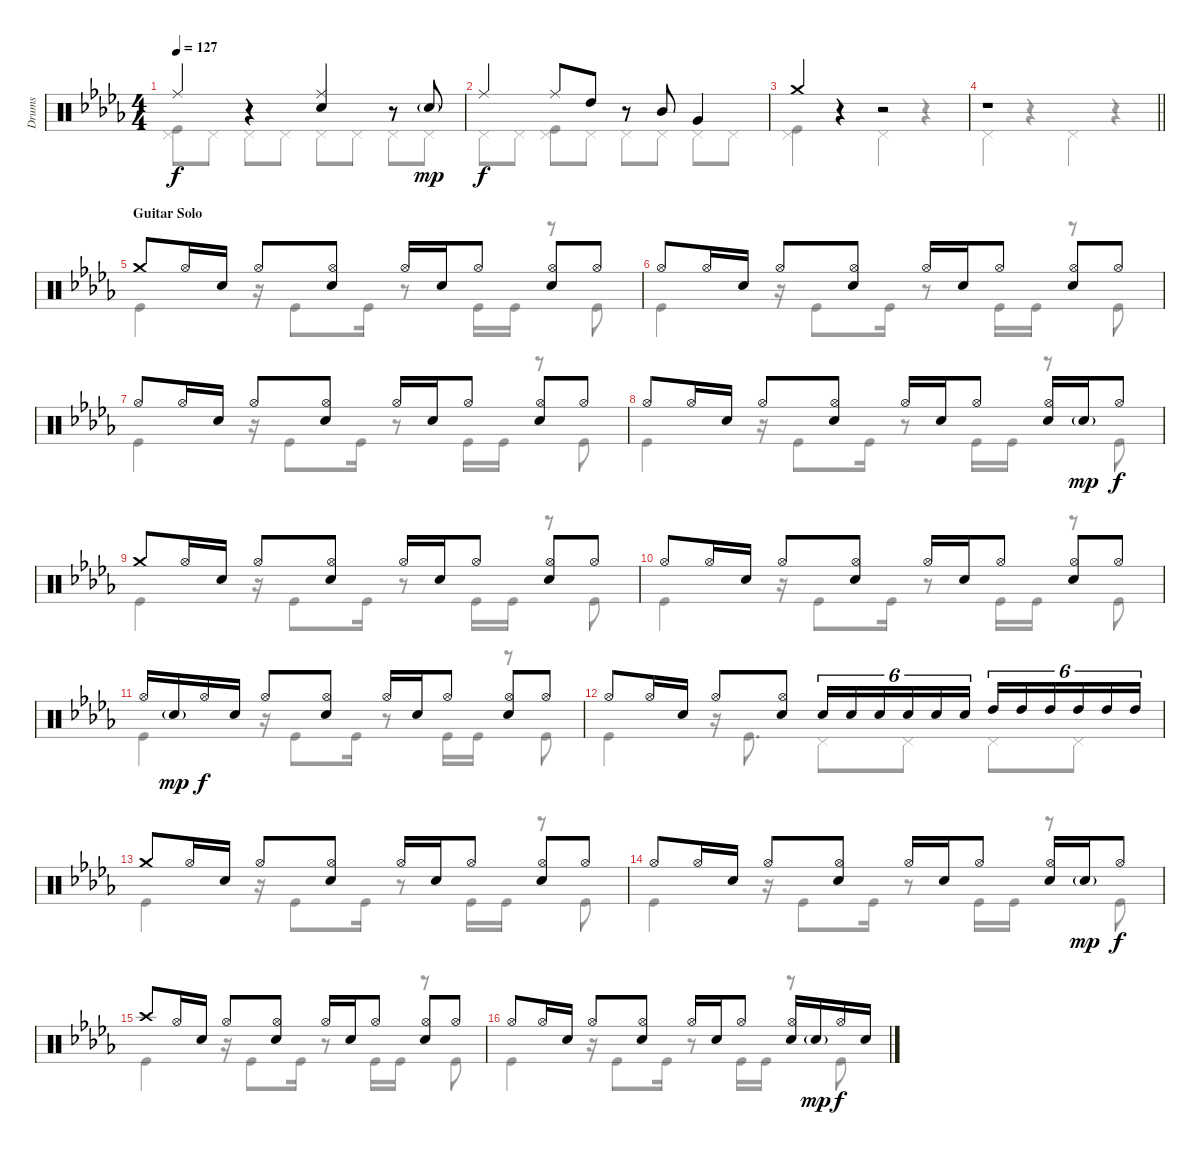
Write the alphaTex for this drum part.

\track ("Drums" "Drums") {instrument percussion}
\staff {score}
\articulation defaults
\voice
\ts (4 4)
\tempo 127
\clef neutral
\ks bbminor "Ride (middle)".4{dy f}
r.4 ("Ride (middle)" "Electric Snare (hit)").4 r.8 "Electric Snare (hit)"{g}.8{dy mp} |
"Ride (middle)".4{dy f} "Ride (middle)".8 "High Tom (hit)".8 r.8 "Mid Tom (hit)".8 "Very Low Tom (hit)".4 |
"Crash medium (hit)".4 r.4 r.2 |
\barLineRight lightlight
r.1 |
\section ("" "Guitar Solo")
"Crash medium (hit)".8 "Hi-Hat (open)".16 "Electric Snare (hit)".16 "Hi-Hat (open)".8 ("Hi-Hat (open)" "Electric Snare (hit)").8 "Hi-Hat (open)".16 "Electric Snare (hit)".16 "Hi-Hat (open)".8 ("Hi-Hat (open)" "Electric Snare (hit)").8 "Hi-Hat (open)".8 |
"Hi-Hat (open)".8 "Hi-Hat (open)".16 "Electric Snare (hit)".16 "Hi-Hat (open)".8 ("Hi-Hat (open)" "Electric Snare (hit)").8 "Hi-Hat (open)".16 "Electric Snare (hit)".16 "Hi-Hat (open)".8 ("Hi-Hat (open)" "Electric Snare (hit)").8 "Hi-Hat (open)".8 |
"Hi-Hat (open)".8 "Hi-Hat (open)".16 "Electric Snare (hit)".16 "Hi-Hat (open)".8 ("Hi-Hat (open)" "Electric Snare (hit)").8 "Hi-Hat (open)".16 "Electric Snare (hit)".16 "Hi-Hat (open)".8 ("Hi-Hat (open)" "Electric Snare (hit)").8 "Hi-Hat (open)".8 |
"Hi-Hat (open)".8 "Hi-Hat (open)".16 "Electric Snare (hit)".16 "Hi-Hat (open)".8 ("Hi-Hat (open)" "Electric Snare (hit)").8 "Hi-Hat (open)".16 "Electric Snare (hit)".16 "Hi-Hat (open)".8 ("Hi-Hat (open)" "Electric Snare (hit)").16 "Electric Snare (hit)"{g}.16{dy mp} "Hi-Hat (open)".8{dy f} |
"Crash medium (hit)".8 "Hi-Hat (open)".16 "Electric Snare (hit)".16 "Hi-Hat (open)".8 ("Hi-Hat (open)" "Electric Snare (hit)").8 "Hi-Hat (open)".16 "Electric Snare (hit)".16 "Hi-Hat (open)".8 ("Hi-Hat (open)" "Electric Snare (hit)").8 "Hi-Hat (open)".8 |
"Hi-Hat (open)".8 "Hi-Hat (open)".16 "Electric Snare (hit)".16 "Hi-Hat (open)".8 ("Hi-Hat (open)" "Electric Snare (hit)").8 "Hi-Hat (open)".16 "Electric Snare (hit)".16 "Hi-Hat (open)".8 ("Hi-Hat (open)" "Electric Snare (hit)").8 "Hi-Hat (open)".8 |
"Hi-Hat (open)".16 "Electric Snare (hit)"{g}.16{dy mp} "Hi-Hat (open)".16{dy f} "Electric Snare (hit)".16 "Hi-Hat (open)".8 ("Hi-Hat (open)" "Electric Snare (hit)").8 "Hi-Hat (open)".16 "Electric Snare (hit)".16 "Hi-Hat (open)".8 ("Hi-Hat (open)" "Electric Snare (hit)").8 "Hi-Hat (open)".8 |
"Hi-Hat (open)".8 "Hi-Hat (open)".16 "Electric Snare (hit)".16 "Hi-Hat (open)".8 ("Hi-Hat (open)" "Electric Snare (hit)").8 "Electric Snare (hit)".16{tu (6 4)} "Electric Snare (hit)".16{tu (6 4)} "Electric Snare (hit)".16{tu (6 4)} "Electric Snare (hit)".16{tu (6 4)} "Electric Snare (hit)".16{tu (6 4)} "Electric Snare (hit)".16{tu (6 4)} "High Tom (hit)".16{tu (6 4)} "High Tom (hit)".16{tu (6 4)} "High Tom (hit)".16{tu (6 4)} "High Tom (hit)".16{tu (6 4)} "High Tom (hit)".16{tu (6 4)} "High Tom (hit)".16{tu (6 4)} |
"Crash medium (hit)".8 "Hi-Hat (open)".16 "Electric Snare (hit)".16 "Hi-Hat (open)".8 ("Hi-Hat (open)" "Electric Snare (hit)").8 "Hi-Hat (open)".16 "Electric Snare (hit)".16 "Hi-Hat (open)".8 ("Hi-Hat (open)" "Electric Snare (hit)").8 "Hi-Hat (open)".8 |
"Hi-Hat (open)".8 "Hi-Hat (open)".16 "Electric Snare (hit)".16 "Hi-Hat (open)".8 ("Hi-Hat (open)" "Electric Snare (hit)").8 "Hi-Hat (open)".16 "Electric Snare (hit)".16 "Hi-Hat (open)".8 ("Hi-Hat (open)" "Electric Snare (hit)").16 "Electric Snare (hit)"{g}.16{dy mp} "Hi-Hat (open)".8{dy f} |
"Crash high (hit)".8 "Hi-Hat (open)".16 "Electric Snare (hit)".16 "Hi-Hat (open)".8 ("Hi-Hat (open)" "Electric Snare (hit)").8 "Hi-Hat (open)".16 "Electric Snare (hit)".16 "Hi-Hat (open)".8 ("Hi-Hat (open)" "Electric Snare (hit)").8 "Hi-Hat (open)".8 |
"Hi-Hat (open)".8 "Hi-Hat (open)".16 "Electric Snare (hit)".16 "Hi-Hat (open)".8 ("Hi-Hat (open)" "Electric Snare (hit)").8 "Hi-Hat (open)".16 "Electric Snare (hit)".16 "Hi-Hat (open)".8 ("Hi-Hat (open)" "Electric Snare (hit)").16 "Electric Snare (hit)"{g}.16{dy mp} "Hi-Hat (open)".16{dy f} "Electric Snare (hit)".16
\voice
\clef neutral
\ottava regular
\simile none
\ks bbminor
("Pedal Hi-Hat (hit)" "Kick (hit)").8{dy f} "Pedal Hi-Hat (hit)".8 "Pedal Hi-Hat (hit)".8 "Pedal Hi-Hat (hit)".8 "Pedal Hi-Hat (hit)".8 "Pedal Hi-Hat (hit)".8 "Pedal Hi-Hat (hit)".8 "Pedal Hi-Hat (hit)".8 |
"Pedal Hi-Hat (hit)".8 "Pedal Hi-Hat (hit)".8 ("Pedal Hi-Hat (hit)" "Kick (hit)").8 "Pedal Hi-Hat (hit)".8 "Pedal Hi-Hat (hit)".8 "Pedal Hi-Hat (hit)".8 "Pedal Hi-Hat (hit)".8 "Pedal Hi-Hat (hit)".8 |
("Pedal Hi-Hat (hit)" "Kick (hit)").4 r.4 "Pedal Hi-Hat (hit)".4 r.4 |
\barLineRight lightlight "Pedal Hi-Hat (hit)".4
r.4 "Pedal Hi-Hat (hit)".4 r.4 |
"Kick (hit)".4 r.16 "Kick (hit)".8 "Kick (hit)".16 r.8 "Kick (hit)".16 "Kick (hit)".16 r.8 "Kick (hit)".8 |
"Kick (hit)".4 r.16 "Kick (hit)".8 "Kick (hit)".16 r.8 "Kick (hit)".16 "Kick (hit)".16 r.8 "Kick (hit)".8 |
"Kick (hit)".4 r.16 "Kick (hit)".8 "Kick (hit)".16 r.8 "Kick (hit)".16 "Kick (hit)".16 r.8 "Kick (hit)".8 |
"Kick (hit)".4 r.16 "Kick (hit)".8 "Kick (hit)".16 r.8 "Kick (hit)".16 "Kick (hit)".16 r.8 "Kick (hit)".8 |
"Kick (hit)".4 r.16 "Kick (hit)".8 "Kick (hit)".16 r.8 "Kick (hit)".16 "Kick (hit)".16 r.8 "Kick (hit)".8 |
"Kick (hit)".4 r.16 "Kick (hit)".8 "Kick (hit)".16 r.8 "Kick (hit)".16 "Kick (hit)".16 r.8 "Kick (hit)".8 |
"Kick (hit)".4 r.16 "Kick (hit)".8 "Kick (hit)".16 r.8 "Kick (hit)".16 "Kick (hit)".16 r.8 "Kick (hit)".8 |
"Kick (hit)".4 r.16 "Kick (hit)".8{d} "Pedal Hi-Hat (hit)".8 "Pedal Hi-Hat (hit)".8 "Pedal Hi-Hat (hit)".8 "Pedal Hi-Hat (hit)".8 |
"Kick (hit)".4 r.16 "Kick (hit)".8 "Kick (hit)".16 r.8 "Kick (hit)".16 "Kick (hit)".16 r.8 "Kick (hit)".8 |
"Kick (hit)".4 r.16 "Kick (hit)".8 "Kick (hit)".16 r.8 "Kick (hit)".16 "Kick (hit)".16 r.8 "Kick (hit)".8 |
"Kick (hit)".4 r.16 "Kick (hit)".8 "Kick (hit)".16 r.8 "Kick (hit)".16 "Kick (hit)".16 r.8 "Kick (hit)".8 |
"Kick (hit)".4 r.16 "Kick (hit)".8 "Kick (hit)".16 r.8 "Kick (hit)".16 "Kick (hit)".16 r.8 "Kick (hit)".8
